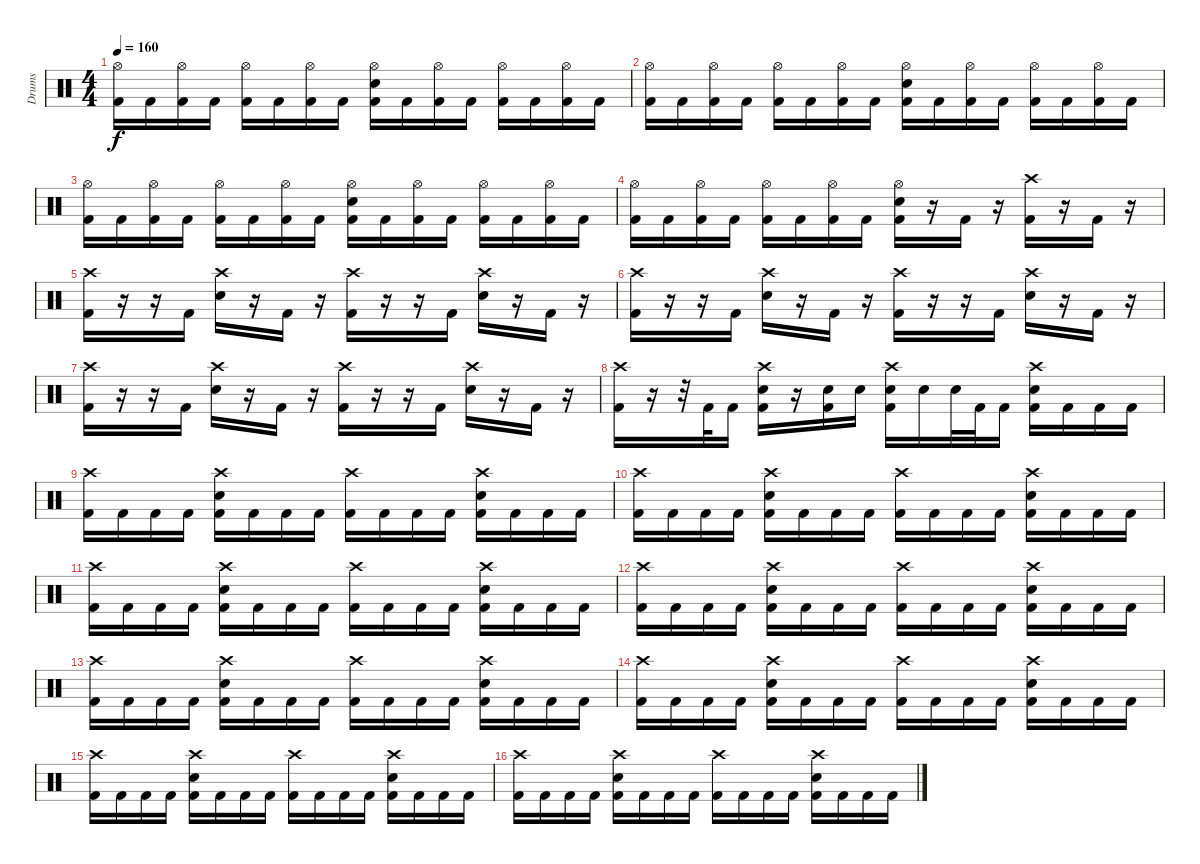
\track ("Drums" "Drums") {instrument percussion}
\staff {score}
\articulation defaults
\ts (4 4)
\tempo 160
\clef neutral
\ks c
("Hi-Hat (open)" "Kick (hit) 2").16{dy f} "Kick (hit) 2".16 ("Hi-Hat (open)" "Kick (hit) 2").16 "Kick (hit) 2".16 ("Hi-Hat (open)" "Kick (hit) 2").16 "Kick (hit) 2".16 ("Hi-Hat (open)" "Kick (hit) 2").16 "Kick (hit) 2".16 ("Hi-Hat (open)" "Electric Snare (hit)" "Kick (hit) 2").16 "Kick (hit) 2".16 ("Hi-Hat (open)" "Kick (hit) 2").16 "Kick (hit) 2".16 ("Hi-Hat (open)" "Kick (hit) 2").16 "Kick (hit) 2".16 ("Hi-Hat (open)" "Kick (hit) 2").16 "Kick (hit) 2".16 |
("Hi-Hat (open)" "Kick (hit) 2").16 "Kick (hit) 2".16 ("Hi-Hat (open)" "Kick (hit) 2").16 "Kick (hit) 2".16 ("Hi-Hat (open)" "Kick (hit) 2").16 "Kick (hit) 2".16 ("Hi-Hat (open)" "Kick (hit) 2").16 "Kick (hit) 2".16 ("Hi-Hat (open)" "Electric Snare (hit)" "Kick (hit) 2").16 "Kick (hit) 2".16 ("Hi-Hat (open)" "Kick (hit) 2").16 "Kick (hit) 2".16 ("Hi-Hat (open)" "Kick (hit) 2").16 "Kick (hit) 2".16 ("Hi-Hat (open)" "Kick (hit) 2").16 "Kick (hit) 2".16 |
("Hi-Hat (open)" "Kick (hit) 2").16 "Kick (hit) 2".16 ("Hi-Hat (open)" "Kick (hit) 2").16 "Kick (hit) 2".16 ("Hi-Hat (open)" "Kick (hit) 2").16 "Kick (hit) 2".16 ("Hi-Hat (open)" "Kick (hit) 2").16 "Kick (hit) 2".16 ("Hi-Hat (open)" "Electric Snare (hit)" "Kick (hit) 2").16 "Kick (hit) 2".16 ("Hi-Hat (open)" "Kick (hit) 2").16 "Kick (hit) 2".16 ("Hi-Hat (open)" "Kick (hit) 2").16 "Kick (hit) 2".16 ("Hi-Hat (open)" "Kick (hit) 2").16 "Kick (hit) 2".16 |
("Hi-Hat (open)" "Kick (hit) 2").16 "Kick (hit) 2".16 ("Hi-Hat (open)" "Kick (hit) 2").16 "Kick (hit) 2".16 ("Hi-Hat (open)" "Kick (hit) 2").16 "Kick (hit) 2".16 ("Hi-Hat (open)" "Kick (hit) 2").16 "Kick (hit) 2".16 ("Hi-Hat (open)" "Electric Snare (hit)" "Kick (hit) 2").16 r.16 "Kick (hit) 2".16 r.16 ("Crash high (hit)" "Kick (hit) 2").16 r.16 "Kick (hit) 2".16 r.16 |
("Crash high (hit)" "Kick (hit) 2").16 r.16 r.16 "Kick (hit) 2".16 ("Crash high (hit)" "Electric Snare (hit)").16 r.16 "Kick (hit) 2".16 r.16 ("Crash high (hit)" "Kick (hit) 2").16 r.16 r.16 "Kick (hit) 2".16 ("Crash high (hit)" "Electric Snare (hit)").16 r.16 "Kick (hit) 2".16 r.16 |
("Crash high (hit)" "Kick (hit) 2").16 r.16 r.16 "Kick (hit) 2".16 ("Crash high (hit)" "Electric Snare (hit)").16 r.16 "Kick (hit) 2".16 r.16 ("Crash high (hit)" "Kick (hit) 2").16 r.16 r.16 "Kick (hit) 2".16 ("Crash high (hit)" "Electric Snare (hit)").16 r.16 "Kick (hit) 2".16 r.16 |
("Crash high (hit)" "Kick (hit) 2").16 r.16 r.16 "Kick (hit) 2".16 ("Crash high (hit)" "Electric Snare (hit)").16 r.16 "Kick (hit) 2".16 r.16 ("Crash high (hit)" "Kick (hit) 2").16 r.16 r.16 "Kick (hit) 2".16 ("Crash high (hit)" "Electric Snare (hit)").16 r.16 "Kick (hit) 2".16 r.16 |
("Crash high (hit)" "Kick (hit) 2").16 r.16 r.32 "Kick (hit) 2".32 "Kick (hit) 2".16 ("Crash high (hit)" "Electric Snare (hit)" "Kick (hit) 2").16 r.16 ("Electric Snare (hit)" "Kick (hit) 2").16 "Electric Snare (hit)".16 ("Crash high (hit)" "Electric Snare (hit)" "Kick (hit) 2").16 "Electric Snare (hit)".16 "Electric Snare (hit)".32 "Kick (hit) 2".32 "Kick (hit) 2".16 ("Crash high (hit)" "Electric Snare (hit)" "Kick (hit) 2").16 "Kick (hit) 2".16 "Kick (hit) 2".16 "Kick (hit) 2".16 |
("Crash high (hit)" "Kick (hit) 2").16 "Kick (hit) 2".16 "Kick (hit) 2".16 "Kick (hit) 2".16 ("Crash high (hit)" "Electric Snare (hit)" "Kick (hit) 2").16 "Kick (hit) 2".16 "Kick (hit) 2".16 "Kick (hit) 2".16 ("Crash high (hit)" "Kick (hit) 2").16 "Kick (hit) 2".16 "Kick (hit) 2".16 "Kick (hit) 2".16 ("Crash high (hit)" "Electric Snare (hit)" "Kick (hit) 2").16 "Kick (hit) 2".16 "Kick (hit) 2".16 "Kick (hit) 2".16 |
("Crash high (hit)" "Kick (hit) 2").16 "Kick (hit) 2".16 "Kick (hit) 2".16 "Kick (hit) 2".16 ("Crash high (hit)" "Electric Snare (hit)" "Kick (hit) 2").16 "Kick (hit) 2".16 "Kick (hit) 2".16 "Kick (hit) 2".16 ("Crash high (hit)" "Kick (hit) 2").16 "Kick (hit) 2".16 "Kick (hit) 2".16 "Kick (hit) 2".16 ("Crash high (hit)" "Electric Snare (hit)" "Kick (hit) 2").16 "Kick (hit) 2".16 "Kick (hit) 2".16 "Kick (hit) 2".16 |
("Crash high (hit)" "Kick (hit) 2").16 "Kick (hit) 2".16 "Kick (hit) 2".16 "Kick (hit) 2".16 ("Crash high (hit)" "Electric Snare (hit)" "Kick (hit) 2").16 "Kick (hit) 2".16 "Kick (hit) 2".16 "Kick (hit) 2".16 ("Crash high (hit)" "Kick (hit) 2").16 "Kick (hit) 2".16 "Kick (hit) 2".16 "Kick (hit) 2".16 ("Crash high (hit)" "Electric Snare (hit)" "Kick (hit) 2").16 "Kick (hit) 2".16 "Kick (hit) 2".16 "Kick (hit) 2".16 |
("Crash high (hit)" "Kick (hit) 2").16 "Kick (hit) 2".16 "Kick (hit) 2".16 "Kick (hit) 2".16 ("Crash high (hit)" "Electric Snare (hit)" "Kick (hit) 2").16 "Kick (hit) 2".16 "Kick (hit) 2".16 "Kick (hit) 2".16 ("Crash high (hit)" "Kick (hit) 2").16 "Kick (hit) 2".16 "Kick (hit) 2".16 "Kick (hit) 2".16 ("Crash high (hit)" "Electric Snare (hit)" "Kick (hit) 2").16 "Kick (hit) 2".16 "Kick (hit) 2".16 "Kick (hit) 2".16 |
("Crash high (hit)" "Kick (hit) 2").16 "Kick (hit) 2".16 "Kick (hit) 2".16 "Kick (hit) 2".16 ("Crash high (hit)" "Electric Snare (hit)" "Kick (hit) 2").16 "Kick (hit) 2".16 "Kick (hit) 2".16 "Kick (hit) 2".16 ("Crash high (hit)" "Kick (hit) 2").16 "Kick (hit) 2".16 "Kick (hit) 2".16 "Kick (hit) 2".16 ("Crash high (hit)" "Electric Snare (hit)" "Kick (hit) 2").16 "Kick (hit) 2".16 "Kick (hit) 2".16 "Kick (hit) 2".16 |
("Crash high (hit)" "Kick (hit) 2").16 "Kick (hit) 2".16 "Kick (hit) 2".16 "Kick (hit) 2".16 ("Crash high (hit)" "Electric Snare (hit)" "Kick (hit) 2").16 "Kick (hit) 2".16 "Kick (hit) 2".16 "Kick (hit) 2".16 ("Crash high (hit)" "Kick (hit) 2").16 "Kick (hit) 2".16 "Kick (hit) 2".16 "Kick (hit) 2".16 ("Crash high (hit)" "Electric Snare (hit)" "Kick (hit) 2").16 "Kick (hit) 2".16 "Kick (hit) 2".16 "Kick (hit) 2".16 |
("Crash high (hit)" "Kick (hit) 2").16 "Kick (hit) 2".16 "Kick (hit) 2".16 "Kick (hit) 2".16 ("Crash high (hit)" "Electric Snare (hit)" "Kick (hit) 2").16 "Kick (hit) 2".16 "Kick (hit) 2".16 "Kick (hit) 2".16 ("Crash high (hit)" "Kick (hit) 2").16 "Kick (hit) 2".16 "Kick (hit) 2".16 "Kick (hit) 2".16 ("Crash high (hit)" "Electric Snare (hit)" "Kick (hit) 2").16 "Kick (hit) 2".16 "Kick (hit) 2".16 "Kick (hit) 2".16 |
("Crash high (hit)" "Kick (hit) 2").16 "Kick (hit) 2".16 "Kick (hit) 2".16 "Kick (hit) 2".16 ("Crash high (hit)" "Electric Snare (hit)" "Kick (hit) 2").16 "Kick (hit) 2".16 "Kick (hit) 2".16 "Kick (hit) 2".16 ("Crash high (hit)" "Kick (hit) 2").16 "Kick (hit) 2".16 "Kick (hit) 2".16 "Kick (hit) 2".16 ("Crash high (hit)" "Electric Snare (hit)" "Kick (hit) 2").16 "Kick (hit) 2".16 "Kick (hit) 2".16 "Kick (hit) 2".16
